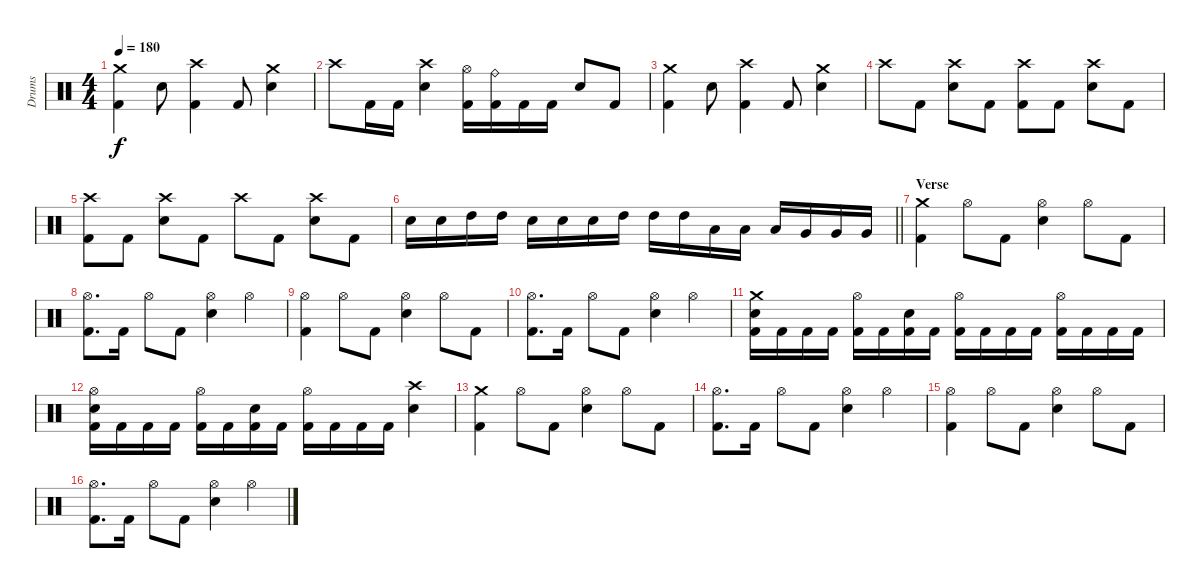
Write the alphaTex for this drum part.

\track ("Drums" "Drums") {instrument percussion}
\staff {score}
\articulation defaults
\ts (4 4)
\tempo 180
\clef neutral
\ks c
("Crash medium (hit)" "Kick (hit) 2").4{dy f} "Snare (hit) 2".8 ("Crash high (hit)" "Kick (hit) 2").4 "Kick (hit) 2".8 ("Crash medium (hit)" "Snare (hit) 2").4 |
"Crash high (hit)".8 "Kick (hit) 2".16 "Kick (hit) 2".16 ("Crash high (hit)" "Snare (hit) 2").4 ("Hi-Hat (open)" "Kick (hit) 2").16 ("Ride (bell)" "Kick (hit) 2").16 "Kick (hit) 2".16 "Kick (hit) 2".16 "Snare (hit) 2".8 "Kick (hit) 2".8 |
("Crash medium (hit)" "Kick (hit) 2").4 "Snare (hit) 2".8 ("Crash high (hit)" "Kick (hit) 2").4 "Kick (hit) 2".8 ("Crash medium (hit)" "Snare (hit) 2").4 |
"Crash high (hit)".8 "Kick (hit) 2".8 ("Crash high (hit)" "Snare (hit) 2").8 "Kick (hit) 2".8 ("Crash high (hit)" "Kick (hit) 2").8 "Kick (hit) 2".8 ("Crash high (hit)" "Snare (hit) 2").8 "Kick (hit) 2".8 |
("Crash high (hit)" "Kick (hit) 2").8 "Kick (hit) 2".8 ("Crash high (hit)" "Snare (hit) 2").8 "Kick (hit) 2".8 "Crash high (hit)".8 "Kick (hit) 2".8 ("Crash high (hit)" "Snare (hit) 2").8 "Kick (hit) 2".8 |
\barLineRight lightlight "Snare (hit) 2".16 "Snare (hit) 2".16 "High Tom (hit)".16 "High Tom (hit)".16 "Snare (hit) 2".16 "Snare (hit) 2".16 "Snare (hit) 2".16 "High Tom (hit)".16 "High Tom (hit)".16 "High Tom (hit)".16 "Low Tom (hit)".16 "Low Tom (hit)".16 "Low Tom (hit)".16 "Very Low Tom (hit)".16 "Very Low Tom (hit)".16 "Very Low Tom (hit)".16
|
\section ("" "Verse")
("Crash medium (hit)" "Kick (hit) 2").4 "Hi-Hat (open)".8 "Kick (hit) 2".8 ("Hi-Hat (open)" "Snare (hit) 2").4 "Hi-Hat (open)".8 "Kick (hit) 2".8 |
("Hi-Hat (open)" "Kick (hit) 2").8{d} "Kick (hit) 2".16 "Hi-Hat (open)".8 "Kick (hit) 2".8 ("Hi-Hat (open)" "Snare (hit) 2").4 "Hi-Hat (open)".4 |
("Hi-Hat (open)" "Kick (hit) 2").4 "Hi-Hat (open)".8 "Kick (hit) 2".8 ("Hi-Hat (open)" "Snare (hit) 2").4 "Hi-Hat (open)".8 "Kick (hit) 2".8 |
("Hi-Hat (open)" "Kick (hit) 2").8{d} "Kick (hit) 2".16 "Hi-Hat (open)".8 "Kick (hit) 2".8 ("Hi-Hat (open)" "Snare (hit) 2").4 "Hi-Hat (open)".4 |
("Crash medium (hit)" "Snare (hit) 2" "Kick (hit) 2").16 "Kick (hit) 2".16 "Kick (hit) 2".16 "Kick (hit) 2".16 ("Hi-Hat (open)" "Kick (hit) 2").16 "Kick (hit) 2".16 ("Snare (hit) 2" "Kick (hit) 2").16 "Kick (hit) 2".16 ("Hi-Hat (open)" "Kick (hit) 2").16 "Kick (hit) 2".16 "Kick (hit) 2".16 "Kick (hit) 2".16 ("Hi-Hat (open)" "Kick (hit) 2").16 "Kick (hit) 2".16 "Kick (hit) 2".16 "Kick (hit) 2".16 |
("Hi-Hat (open)" "Snare (hit) 2" "Kick (hit) 2").16 "Kick (hit) 2".16 "Kick (hit) 2".16 "Kick (hit) 2".16 ("Hi-Hat (open)" "Kick (hit) 2").16 "Kick (hit) 2".16 ("Snare (hit) 2" "Kick (hit) 2").16 "Kick (hit) 2".16 ("Hi-Hat (open)" "Kick (hit) 2").16 "Kick (hit) 2".16 "Kick (hit) 2".16 "Kick (hit) 2".16 ("Crash high (hit)" "Snare (hit) 2").4 |
("Crash medium (hit)" "Kick (hit) 2").4 "Hi-Hat (open)".8 "Kick (hit) 2".8 ("Hi-Hat (open)" "Snare (hit) 2").4 "Hi-Hat (open)".8 "Kick (hit) 2".8 |
("Hi-Hat (open)" "Kick (hit) 2").8{d} "Kick (hit) 2".16 "Hi-Hat (open)".8 "Kick (hit) 2".8 ("Hi-Hat (open)" "Snare (hit) 2").4 "Hi-Hat (open)".4 |
("Hi-Hat (open)" "Kick (hit) 2").4 "Hi-Hat (open)".8 "Kick (hit) 2".8 ("Hi-Hat (open)" "Snare (hit) 2").4 "Hi-Hat (open)".8 "Kick (hit) 2".8 |
("Hi-Hat (open)" "Kick (hit) 2").8{d} "Kick (hit) 2".16 "Hi-Hat (open)".8 "Kick (hit) 2".8 ("Hi-Hat (open)" "Snare (hit) 2").4 "Hi-Hat (open)".4
